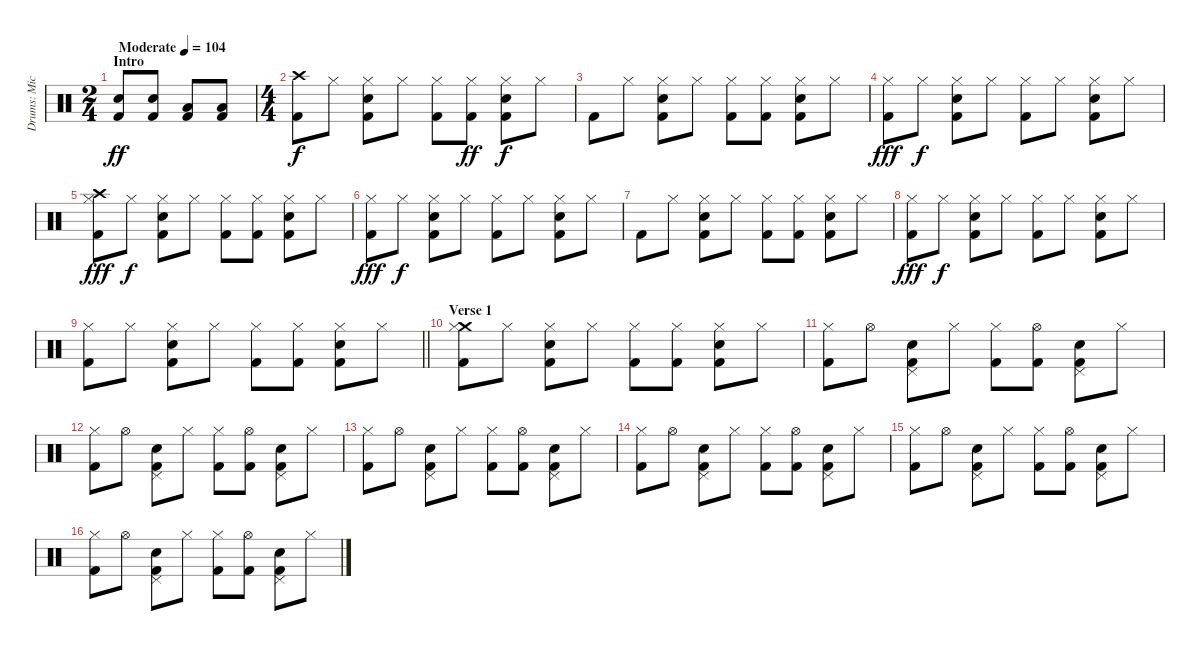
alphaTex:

\track ("Drums: Mick Fleetwood" "Drums: Mic") {instrument percussion}
\staff {score}
\articulation defaults
\ts (2 4)
\section ("" "Intro")
\tempo (104 "Moderate")
\clef neutral
\ks c
("Electric Snare (hit)" "Kick (hit) 2").8{dy ff} ("Electric Snare (hit)" "Kick (hit) 2").8 ("Low Tom (hit)" "Kick (hit) 2").8 ("Low Floor Tom (hit)" "Kick (hit) 2").8 |
\ts (4 4)
("Crash high (hit)" "Kick (hit) 2").8{dy f} "Hi-Hat (closed)".8 ("Hi-Hat (closed)" "Snare (hit) 2" "Kick (hit) 2").8 "Hi-Hat (closed)".8 ("Hi-Hat (closed)" "Kick (hit) 2").8 ("Hi-Hat (closed)" "Kick (hit) 2").8{dy ff} ("Hi-Hat (closed)" "Snare (hit) 2" "Kick (hit) 2").8{dy f} "Hi-Hat (closed)".8 |
"Kick (hit) 2".8 "Hi-Hat (closed)".8 ("Hi-Hat (closed)" "Snare (hit) 2" "Kick (hit) 2").8 "Hi-Hat (closed)".8 ("Hi-Hat (closed)" "Kick (hit) 2").8 ("Hi-Hat (closed)" "Kick (hit) 2").8 ("Hi-Hat (closed)" "Snare (hit) 2" "Kick (hit) 2").8 "Hi-Hat (closed)".8 |
("Hi-Hat (closed)" "Kick (hit) 2").8{dy fff} "Hi-Hat (closed)".8{dy f} ("Hi-Hat (closed)" "Snare (hit) 2" "Kick (hit) 2").8 "Hi-Hat (closed)".8 ("Hi-Hat (closed)" "Kick (hit) 2").8 "Hi-Hat (closed)".8 ("Hi-Hat (closed)" "Snare (hit) 2" "Kick (hit) 2").8 "Hi-Hat (closed)".8 |
("Crash high (hit)" "Hi-Hat (closed)" "Kick (hit) 2").8{dy fff} "Hi-Hat (closed)".8{dy f} ("Hi-Hat (closed)" "Snare (hit) 2" "Kick (hit) 2").8 "Hi-Hat (closed)".8 ("Hi-Hat (closed)" "Kick (hit) 2").8 ("Hi-Hat (closed)" "Kick (hit) 2").8 ("Hi-Hat (closed)" "Snare (hit) 2" "Kick (hit) 2").8 "Hi-Hat (closed)".8 |
("Hi-Hat (closed)" "Kick (hit) 2").8{dy fff} "Hi-Hat (closed)".8{dy f} ("Hi-Hat (closed)" "Snare (hit) 2" "Kick (hit) 2").8 "Hi-Hat (closed)".8 ("Hi-Hat (closed)" "Kick (hit) 2").8 "Hi-Hat (closed)".8 ("Hi-Hat (closed)" "Snare (hit) 2" "Kick (hit) 2").8 "Hi-Hat (closed)".8 |
"Kick (hit) 2".8 "Hi-Hat (closed)".8 ("Hi-Hat (closed)" "Snare (hit) 2" "Kick (hit) 2").8 "Hi-Hat (closed)".8 ("Hi-Hat (closed)" "Kick (hit) 2").8 ("Hi-Hat (closed)" "Kick (hit) 2").8 ("Hi-Hat (closed)" "Snare (hit) 2" "Kick (hit) 2").8 "Hi-Hat (closed)".8 |
("Hi-Hat (closed)" "Kick (hit) 2").8{dy fff} "Hi-Hat (closed)".8{dy f} ("Hi-Hat (closed)" "Snare (hit) 2" "Kick (hit) 2").8 "Hi-Hat (closed)".8 ("Hi-Hat (closed)" "Kick (hit) 2").8 "Hi-Hat (closed)".8 ("Hi-Hat (closed)" "Snare (hit) 2" "Kick (hit) 2").8 "Hi-Hat (closed)".8 |
\barLineRight lightlight
("Hi-Hat (closed)" "Kick (hit) 2").8 "Hi-Hat (closed)".8 ("Hi-Hat (closed)" "Snare (hit) 2" "Kick (hit) 2").8 "Hi-Hat (closed)".8 ("Hi-Hat (closed)" "Kick (hit) 2").8 ("Hi-Hat (closed)" "Kick (hit) 2").8 ("Hi-Hat (closed)" "Snare (hit) 2" "Kick (hit) 2").8 "Hi-Hat (closed)".8 |
\section ("" "Verse 1")
("Crash medium (hit)" "Hi-Hat (closed)" "Kick (hit) 2").8 "Hi-Hat (closed)".8 ("Hi-Hat (closed)" "Snare (hit) 2" "Kick (hit) 2").8 "Hi-Hat (closed)".8 ("Hi-Hat (closed)" "Kick (hit) 2").8 ("Hi-Hat (closed)" "Kick (hit) 2").8 ("Hi-Hat (closed)" "Snare (hit) 2" "Kick (hit) 2").8 "Hi-Hat (closed)".8 |
("Hi-Hat (closed)" "Kick (hit) 2").8 "Hi-Hat (open)".8 ("Pedal Hi-Hat (hit)" "Snare (hit) 2" "Kick (hit) 2").8 "Hi-Hat (closed)".8 ("Hi-Hat (closed)" "Kick (hit) 2").8 ("Hi-Hat (open)" "Kick (hit) 2").8 ("Pedal Hi-Hat (hit)" "Snare (hit) 2" "Kick (hit) 2").8 "Hi-Hat (closed)".8 |
("Hi-Hat (closed)" "Kick (hit) 2").8 "Hi-Hat (open)".8 ("Pedal Hi-Hat (hit)" "Snare (hit) 2" "Kick (hit) 2").8 "Hi-Hat (closed)".8 ("Hi-Hat (closed)" "Kick (hit) 2").8 ("Hi-Hat (open)" "Kick (hit) 2").8 ("Pedal Hi-Hat (hit)" "Snare (hit) 2" "Kick (hit) 2").8 "Hi-Hat (closed)".8 |
("Hi-Hat (closed)" "Kick (hit) 2").8 "Hi-Hat (open)".8 ("Pedal Hi-Hat (hit)" "Snare (hit) 2" "Kick (hit) 2").8 "Hi-Hat (closed)".8 ("Hi-Hat (closed)" "Kick (hit) 2").8 ("Hi-Hat (open)" "Kick (hit) 2").8 ("Pedal Hi-Hat (hit)" "Snare (hit) 2" "Kick (hit) 2").8 "Hi-Hat (closed)".8 |
("Hi-Hat (closed)" "Kick (hit) 2").8 "Hi-Hat (open)".8 ("Pedal Hi-Hat (hit)" "Snare (hit) 2" "Kick (hit) 2").8 "Hi-Hat (closed)".8 ("Hi-Hat (closed)" "Kick (hit) 2").8 ("Hi-Hat (open)" "Kick (hit) 2").8 ("Pedal Hi-Hat (hit)" "Snare (hit) 2" "Kick (hit) 2").8 "Hi-Hat (closed)".8 |
("Hi-Hat (closed)" "Kick (hit) 2").8 "Hi-Hat (open)".8 ("Pedal Hi-Hat (hit)" "Snare (hit) 2" "Kick (hit) 2").8 "Hi-Hat (closed)".8 ("Hi-Hat (closed)" "Kick (hit) 2").8 ("Hi-Hat (open)" "Kick (hit) 2").8 ("Pedal Hi-Hat (hit)" "Snare (hit) 2" "Kick (hit) 2").8 "Hi-Hat (closed)".8 |
("Hi-Hat (closed)" "Kick (hit) 2").8 "Hi-Hat (open)".8 ("Pedal Hi-Hat (hit)" "Snare (hit) 2" "Kick (hit) 2").8 "Hi-Hat (closed)".8 ("Hi-Hat (closed)" "Kick (hit) 2").8 ("Hi-Hat (open)" "Kick (hit) 2").8 ("Pedal Hi-Hat (hit)" "Snare (hit) 2" "Kick (hit) 2").8 "Hi-Hat (closed)".8
